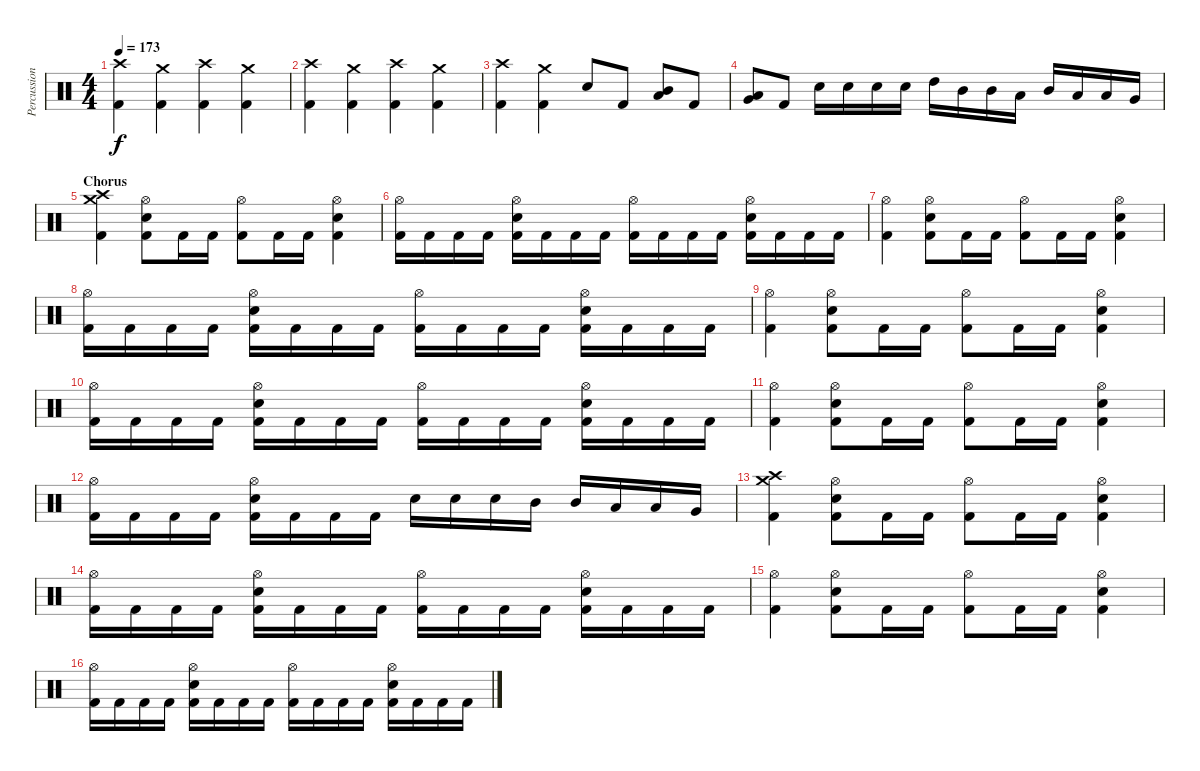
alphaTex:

\track ("Percussions" "Percussion") {instrument percussion}
\staff {score}
\articulation defaults
\ts (4 4)
\tempo 173
\clef neutral
\ks c
("Crash high (hit)" "Kick (hit) 2").4{dy f} ("Crash medium (hit)" "Kick (hit) 2").4 ("Crash high (hit)" "Kick (hit) 2").4 ("Crash medium (hit)" "Kick (hit) 2").4 |
("Crash high (hit)" "Kick (hit) 2").4 ("Crash medium (hit)" "Kick (hit) 2").4 ("Crash high (hit)" "Kick (hit) 2").4 ("Crash medium (hit)" "Kick (hit) 2").4 |
("Crash high (hit)" "Kick (hit) 2").4 ("Crash medium (hit)" "Kick (hit) 2").4 "Electric Snare (hit)".8 "Kick (hit) 2".8 ("Mid Tom (hit)" "Low Tom (hit)").8 "Kick (hit) 2".8 |
("Low Tom (hit)" "Very Low Tom (hit)").8 "Kick (hit) 2".8 "Electric Snare (hit)".16 "Electric Snare (hit)".16 "Electric Snare (hit)".16 "Electric Snare (hit)".16 "High Tom (hit)".16 "Mid Tom (hit)".16 "Mid Tom (hit)".16 "Low Tom (hit)".16 "Mid Tom (hit)".16 "Low Tom (hit)".16 "Low Tom (hit)".16 "Very Low Tom (hit)".16 |
\section ("" "Chorus")
("Crash high (hit)" "Crash medium (hit)" "Kick (hit) 2").4 ("Hi-Hat (open)" "Electric Snare (hit)" "Kick (hit) 2").8 "Kick (hit) 2".16 "Kick (hit) 2".16 ("Hi-Hat (open)" "Kick (hit) 2").8 "Kick (hit) 2".16 "Kick (hit) 2".16 ("Hi-Hat (open)" "Electric Snare (hit)" "Kick (hit) 2").4 |
("Hi-Hat (open)" "Kick (hit) 2").16 "Kick (hit) 2".16 "Kick (hit) 2".16 "Kick (hit) 2".16 ("Hi-Hat (open)" "Electric Snare (hit)" "Kick (hit) 2").16 "Kick (hit) 2".16 "Kick (hit) 2".16 "Kick (hit) 2".16 ("Hi-Hat (open)" "Kick (hit) 2").16 "Kick (hit) 2".16 "Kick (hit) 2".16 "Kick (hit) 2".16 ("Hi-Hat (open)" "Electric Snare (hit)" "Kick (hit) 2").16 "Kick (hit) 2".16 "Kick (hit) 2".16 "Kick (hit) 2".16 |
("Hi-Hat (open)" "Kick (hit) 2").4 ("Hi-Hat (open)" "Electric Snare (hit)" "Kick (hit) 2").8 "Kick (hit) 2".16 "Kick (hit) 2".16 ("Hi-Hat (open)" "Kick (hit) 2").8 "Kick (hit) 2".16 "Kick (hit) 2".16 ("Hi-Hat (open)" "Electric Snare (hit)" "Kick (hit) 2").4 |
("Hi-Hat (open)" "Kick (hit) 2").16 "Kick (hit) 2".16 "Kick (hit) 2".16 "Kick (hit) 2".16 ("Hi-Hat (open)" "Electric Snare (hit)" "Kick (hit) 2").16 "Kick (hit) 2".16 "Kick (hit) 2".16 "Kick (hit) 2".16 ("Hi-Hat (open)" "Kick (hit) 2").16 "Kick (hit) 2".16 "Kick (hit) 2".16 "Kick (hit) 2".16 ("Hi-Hat (open)" "Electric Snare (hit)" "Kick (hit) 2").16 "Kick (hit) 2".16 "Kick (hit) 2".16 "Kick (hit) 2".16 |
("Hi-Hat (open)" "Kick (hit) 2").4 ("Hi-Hat (open)" "Electric Snare (hit)" "Kick (hit) 2").8 "Kick (hit) 2".16 "Kick (hit) 2".16 ("Hi-Hat (open)" "Kick (hit) 2").8 "Kick (hit) 2".16 "Kick (hit) 2".16 ("Hi-Hat (open)" "Electric Snare (hit)" "Kick (hit) 2").4 |
("Hi-Hat (open)" "Kick (hit) 2").16 "Kick (hit) 2".16 "Kick (hit) 2".16 "Kick (hit) 2".16 ("Hi-Hat (open)" "Electric Snare (hit)" "Kick (hit) 2").16 "Kick (hit) 2".16 "Kick (hit) 2".16 "Kick (hit) 2".16 ("Hi-Hat (open)" "Kick (hit) 2").16 "Kick (hit) 2".16 "Kick (hit) 2".16 "Kick (hit) 2".16 ("Hi-Hat (open)" "Electric Snare (hit)" "Kick (hit) 2").16 "Kick (hit) 2".16 "Kick (hit) 2".16 "Kick (hit) 2".16 |
("Hi-Hat (open)" "Kick (hit) 2").4 ("Hi-Hat (open)" "Electric Snare (hit)" "Kick (hit) 2").8 "Kick (hit) 2".16 "Kick (hit) 2".16 ("Hi-Hat (open)" "Kick (hit) 2").8 "Kick (hit) 2".16 "Kick (hit) 2".16 ("Hi-Hat (open)" "Electric Snare (hit)" "Kick (hit) 2").4 |
("Hi-Hat (open)" "Kick (hit) 2").16 "Kick (hit) 2".16 "Kick (hit) 2".16 "Kick (hit) 2".16 ("Hi-Hat (open)" "Electric Snare (hit)" "Kick (hit) 2").16 "Kick (hit) 2".16 "Kick (hit) 2".16 "Kick (hit) 2".16 "Electric Snare (hit)".16 "Electric Snare (hit)".16 "Electric Snare (hit)".16 "Mid Tom (hit)".16 "Mid Tom (hit)".16 "Low Tom (hit)".16 "Low Tom (hit)".16 "Very Low Tom (hit)".16 |
("Crash high (hit)" "Crash medium (hit)" "Kick (hit) 2").4 ("Hi-Hat (open)" "Electric Snare (hit)" "Kick (hit) 2").8 "Kick (hit) 2".16 "Kick (hit) 2".16 ("Hi-Hat (open)" "Kick (hit) 2").8 "Kick (hit) 2".16 "Kick (hit) 2".16 ("Hi-Hat (open)" "Electric Snare (hit)" "Kick (hit) 2").4 |
("Hi-Hat (open)" "Kick (hit) 2").16 "Kick (hit) 2".16 "Kick (hit) 2".16 "Kick (hit) 2".16 ("Hi-Hat (open)" "Electric Snare (hit)" "Kick (hit) 2").16 "Kick (hit) 2".16 "Kick (hit) 2".16 "Kick (hit) 2".16 ("Hi-Hat (open)" "Kick (hit) 2").16 "Kick (hit) 2".16 "Kick (hit) 2".16 "Kick (hit) 2".16 ("Hi-Hat (open)" "Electric Snare (hit)" "Kick (hit) 2").16 "Kick (hit) 2".16 "Kick (hit) 2".16 "Kick (hit) 2".16 |
("Hi-Hat (open)" "Kick (hit) 2").4 ("Hi-Hat (open)" "Electric Snare (hit)" "Kick (hit) 2").8 "Kick (hit) 2".16 "Kick (hit) 2".16 ("Hi-Hat (open)" "Kick (hit) 2").8 "Kick (hit) 2".16 "Kick (hit) 2".16 ("Hi-Hat (open)" "Electric Snare (hit)" "Kick (hit) 2").4 |
("Hi-Hat (open)" "Kick (hit) 2").16 "Kick (hit) 2".16 "Kick (hit) 2".16 "Kick (hit) 2".16 ("Hi-Hat (open)" "Electric Snare (hit)" "Kick (hit) 2").16 "Kick (hit) 2".16 "Kick (hit) 2".16 "Kick (hit) 2".16 ("Hi-Hat (open)" "Kick (hit) 2").16 "Kick (hit) 2".16 "Kick (hit) 2".16 "Kick (hit) 2".16 ("Hi-Hat (open)" "Electric Snare (hit)" "Kick (hit) 2").16 "Kick (hit) 2".16 "Kick (hit) 2".16 "Kick (hit) 2".16
